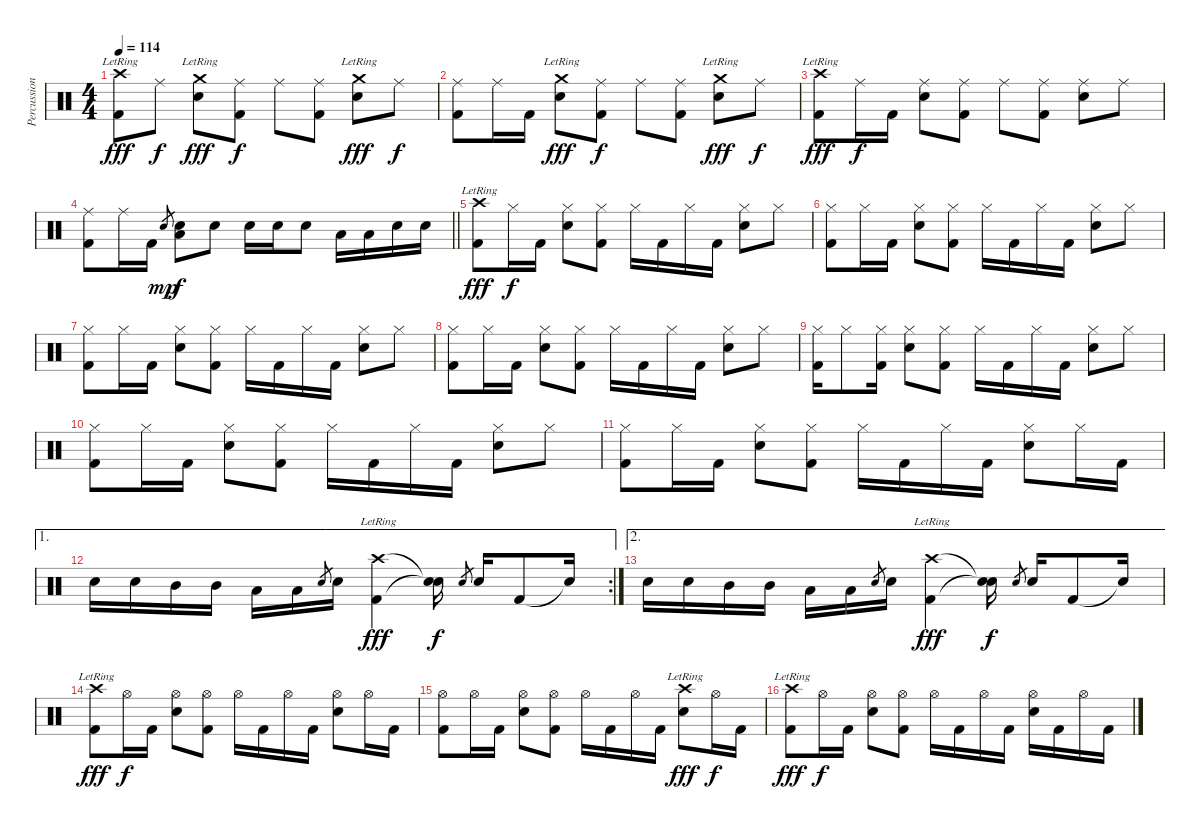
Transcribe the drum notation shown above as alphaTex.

\track ("Percussion" "Percussion") {instrument percussion}
\staff {score}
\articulation defaults
\ts (4 4)
\tempo 114
\clef neutral
\ks c
("Crash high (hit)"{lr} "Kick (hit) 2").8{dy fff} "Ride (middle)".8{dy f} ("Crash medium (hit)"{lr} "Snare (hit) 2").8{dy fff} ("Ride (middle)" "Kick (hit) 2").8{dy f} "Ride (middle)".8 ("Ride (middle)" "Kick (hit) 2").8 ("Crash medium (hit)"{lr} "Snare (hit) 2").8{dy fff} "Ride (middle)".8{dy f} |
("Ride (middle)" "Kick (hit) 2").8 "Ride (middle)".16 "Kick (hit) 2".16 ("Crash medium (hit)"{lr} "Snare (hit) 2").8{dy fff} ("Ride (middle)" "Kick (hit) 2").8{dy f} "Ride (middle)".8 ("Ride (middle)" "Kick (hit) 2").8 ("Crash medium (hit)"{lr} "Snare (hit) 2").8{dy fff} "Ride (middle)".8{dy f} |
("Crash high (hit)"{lr} "Kick (hit) 2").8{dy fff} "Ride (middle)".16{dy f} "Kick (hit) 2".16 ("Ride (middle)" "Snare (hit) 2").8 ("Ride (middle)" "Kick (hit) 2").8 "Ride (middle)".8 ("Ride (middle)" "Kick (hit) 2").8 ("Ride (middle)" "Snare (hit) 2").8 "Ride (middle)".8 |
\barLineRight lightlight
("Ride (middle)" "Kick (hit) 2").8 "Ride (middle)".16 "Kick (hit) 2".16 "Snare (hit) 2".8{gr dy mp} ("Low Tom (hit)" "Snare (hit) 2").8{dy f} "Snare (hit) 2".8 "Snare (hit) 2".16 "Snare (hit) 2".16 "Snare (hit) 2".8 "Low Tom (hit)".16 "Low Tom (hit)".16 "Snare (hit) 2".16 "Snare (hit) 2".16 |
("Crash high (hit)"{lr} "Kick (hit) 2").8{dy fff} "Hi-Hat (closed)".16{dy f} "Kick (hit) 2".16 ("Hi-Hat (closed)" "Snare (hit) 2").8 ("Hi-Hat (closed)" "Kick (hit) 2").8 "Hi-Hat (closed)".16 "Kick (hit) 2".16 "Hi-Hat (closed)".16 "Kick (hit) 2".16 ("Hi-Hat (closed)" "Snare (hit) 2").8 "Hi-Hat (closed)".8 |
("Hi-Hat (closed)" "Kick (hit) 2").8 "Hi-Hat (closed)".16 "Kick (hit) 2".16 ("Hi-Hat (closed)" "Snare (hit) 2").8 ("Hi-Hat (closed)" "Kick (hit) 2").8 "Hi-Hat (closed)".16 "Kick (hit) 2".16 "Hi-Hat (closed)".16 "Kick (hit) 2".16 ("Hi-Hat (closed)" "Snare (hit) 2").8 "Hi-Hat (closed)".8 |
("Hi-Hat (closed)" "Kick (hit) 2").8 "Hi-Hat (closed)".16 "Kick (hit) 2".16 ("Hi-Hat (closed)" "Snare (hit) 2").8 ("Hi-Hat (closed)" "Kick (hit) 2").8 "Hi-Hat (closed)".16 "Kick (hit) 2".16 "Hi-Hat (closed)".16 "Kick (hit) 2".16 ("Hi-Hat (closed)" "Snare (hit) 2").8 "Hi-Hat (closed)".8 |
("Hi-Hat (closed)" "Kick (hit) 2").8 "Hi-Hat (closed)".16 "Kick (hit) 2".16 ("Hi-Hat (closed)" "Snare (hit) 2").8 ("Hi-Hat (closed)" "Kick (hit) 2").8 "Hi-Hat (closed)".16 "Kick (hit) 2".16 "Hi-Hat (closed)".16 "Kick (hit) 2".16 ("Hi-Hat (closed)" "Snare (hit) 2").8 "Hi-Hat (closed)".8 |
("Hi-Hat (closed)" "Kick (hit) 2").16 "Hi-Hat (closed)".8 ("Hi-Hat (closed)" "Kick (hit) 2").16 ("Hi-Hat (closed)" "Snare (hit) 2").8 ("Hi-Hat (closed)" "Kick (hit) 2").8 "Hi-Hat (closed)".16 "Kick (hit) 2".16 "Hi-Hat (closed)".16 "Kick (hit) 2".16 ("Hi-Hat (closed)" "Snare (hit) 2").8 "Hi-Hat (closed)".8 |
("Hi-Hat (closed)" "Kick (hit) 2").8 "Hi-Hat (closed)".16 "Kick (hit) 2".16 ("Hi-Hat (closed)" "Snare (hit) 2").8 ("Hi-Hat (closed)" "Kick (hit) 2").8 "Hi-Hat (closed)".16 "Kick (hit) 2".16 "Hi-Hat (closed)".16 "Kick (hit) 2".16 ("Hi-Hat (closed)" "Snare (hit) 2").8 "Hi-Hat (closed)".8 |
("Hi-Hat (closed)" "Kick (hit) 2").8 "Hi-Hat (closed)".16 "Kick (hit) 2".16 ("Hi-Hat (closed)" "Snare (hit) 2").8 ("Hi-Hat (closed)" "Kick (hit) 2").8 "Hi-Hat (closed)".16 "Kick (hit) 2".16 "Hi-Hat (closed)".16 "Kick (hit) 2".16 ("Hi-Hat (closed)" "Snare (hit) 2").8 "Hi-Hat (closed)".16 "Kick (hit) 2".16 |
\ae 1
\rc 2 "Snare (hit) 2".16 "Snare (hit) 2".16 "Mid Tom (hit)".16 "Mid Tom (hit)".16 "Low Tom (hit)".16 "Low Tom (hit)".16 "Snare (hit) 2".8{gr} "Snare (hit) 2".16
("Crash high (hit)"{lr} "Kick (hit) 2").4{dy fff} ("Snare (hit)"{t} "Snare (hit)"{t}).16{dy f} "Snare (hit) 2".8{gr} "Snare (hit) 2".16 "Kick (hit) 2".8 "Snare (hit)"{t}.16 |
\ae 2 "Snare (hit) 2".16 "Snare (hit) 2".16 "Mid Tom (hit)".16 "Mid Tom (hit)".16 "Low Tom (hit)".16 "Low Tom (hit)".16 "Snare (hit) 2".8{gr} "Snare (hit) 2".16
("Crash high (hit)"{lr} "Kick (hit) 2").4{dy fff} ("Snare (hit)"{t} "Snare (hit)"{t}).16{dy f} "Snare (hit) 2".8{gr} "Snare (hit) 2".16 "Kick (hit) 2".8 "Snare (hit)"{t}.16 |
("Crash high (hit)"{lr} "Kick (hit) 2").8{dy fff} "Hi-Hat (open)".16{dy f} "Kick (hit) 2".16 ("Hi-Hat (open)" "Snare (hit) 2").8 ("Hi-Hat (open)" "Kick (hit) 2").8 "Hi-Hat (open)".16 "Kick (hit) 2".16 "Hi-Hat (open)".16 "Kick (hit) 2".16 ("Hi-Hat (open)" "Snare (hit) 2").8 "Hi-Hat (open)".16 "Kick (hit) 2".16 |
("Hi-Hat (open)" "Kick (hit) 2").8 "Hi-Hat (open)".16 "Kick (hit) 2".16 ("Hi-Hat (open)" "Snare (hit) 2").8 ("Hi-Hat (open)" "Kick (hit) 2").8 "Hi-Hat (open)".16 "Kick (hit) 2".16 "Hi-Hat (open)".16 "Kick (hit) 2".16 ("Crash high (hit)"{lr} "Snare (hit) 2").8{dy fff} "Hi-Hat (open)".16{dy f} "Kick (hit) 2".16 |
("Crash high (hit)"{lr} "Kick (hit) 2").8{dy fff} "Hi-Hat (open)".16{dy f} "Kick (hit) 2".16 ("Hi-Hat (open)" "Snare (hit) 2").8 ("Hi-Hat (open)" "Kick (hit) 2").8 "Hi-Hat (open)".16 "Kick (hit) 2".16 "Hi-Hat (open)".16 "Kick (hit) 2".16 ("Hi-Hat (open)" "Snare (hit) 2").16 "Kick (hit) 2".16 "Hi-Hat (open)".16 "Kick (hit) 2".16
